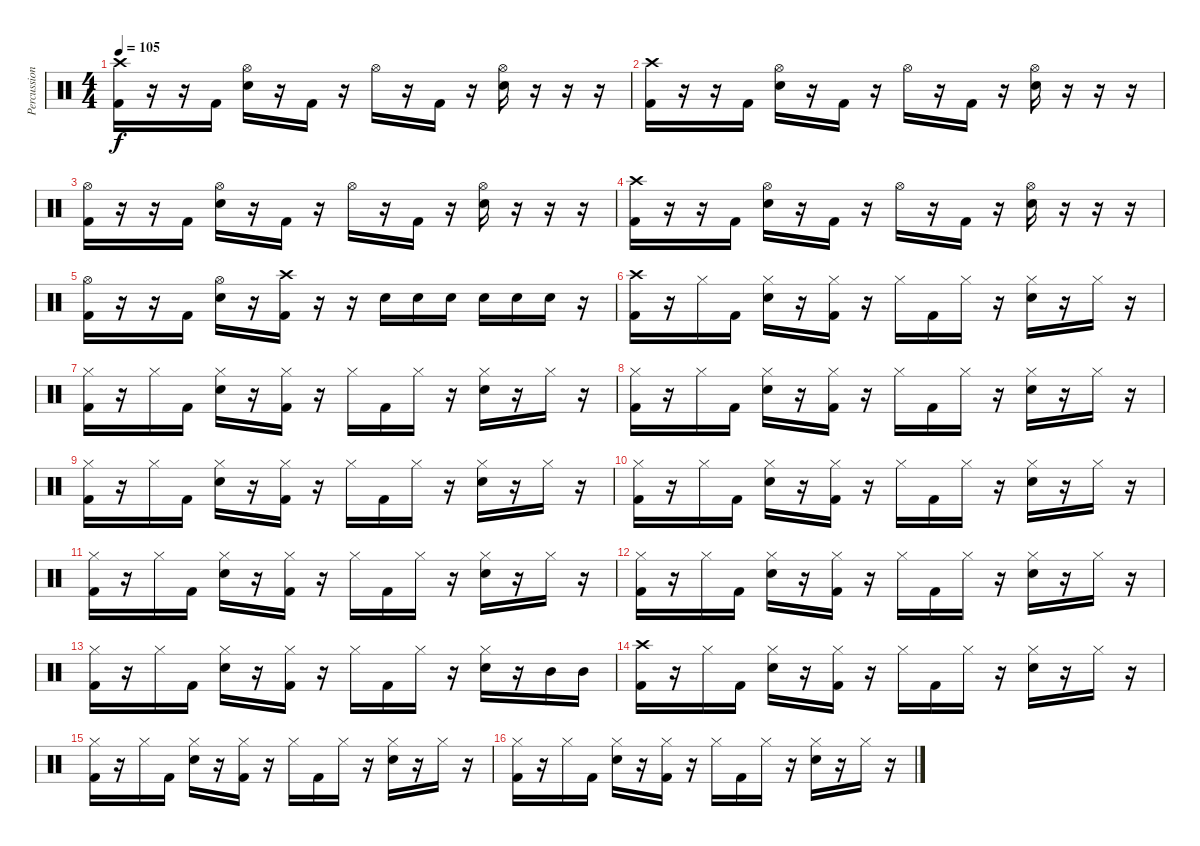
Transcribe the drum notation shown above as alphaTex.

\track ("Percussion" "Percussion") {instrument percussion}
\staff {score}
\articulation defaults
\ts (4 4)
\tempo 105
\clef neutral
\ks c
("Crash high (hit)" "Kick (hit) 2").16{dy f} r.16 r.16 "Kick (hit) 2".16 ("Hi-Hat (open)" "Snare (hit) 2").16 r.16 "Kick (hit) 2".16 r.16 "Hi-Hat (open)".16 r.16 "Kick (hit) 2".16 r.16 ("Hi-Hat (open)" "Snare (hit) 2").16 r.16 r.16 r.16 |
("Crash high (hit)" "Kick (hit) 2").16 r.16 r.16 "Kick (hit) 2".16 ("Hi-Hat (open)" "Snare (hit) 2").16 r.16 "Kick (hit) 2".16 r.16 "Hi-Hat (open)".16 r.16 "Kick (hit) 2".16 r.16 ("Hi-Hat (open)" "Snare (hit) 2").16 r.16 r.16 r.16 |
("Hi-Hat (open)" "Kick (hit) 2").16 r.16 r.16 "Kick (hit) 2".16 ("Hi-Hat (open)" "Snare (hit) 2").16 r.16 "Kick (hit) 2".16 r.16 "Hi-Hat (open)".16 r.16 "Kick (hit) 2".16 r.16 ("Hi-Hat (open)" "Snare (hit) 2").16 r.16 r.16 r.16 |
("Crash high (hit)" "Kick (hit) 2").16 r.16 r.16 "Kick (hit) 2".16 ("Hi-Hat (open)" "Snare (hit) 2").16 r.16 "Kick (hit) 2".16 r.16 "Hi-Hat (open)".16 r.16 "Kick (hit) 2".16 r.16 ("Hi-Hat (open)" "Snare (hit) 2").16 r.16 r.16 r.16 |
("Hi-Hat (open)" "Kick (hit) 2").16 r.16 r.16 "Kick (hit) 2".16 ("Hi-Hat (open)" "Snare (hit) 2").16 r.16 ("Crash high (hit)" "Kick (hit) 2").16 r.16 r.16 "Snare (hit) 2".16 "Snare (hit) 2".16 "Snare (hit) 2".16 "Snare (hit) 2".16 "Snare (hit) 2".16 "Snare (hit) 2".16 r.16 |
("Crash high (hit)" "Kick (hit) 2").16 r.16 "Hi-Hat (closed)".16 "Kick (hit) 2".16 ("Hi-Hat (closed)" "Snare (hit) 2").16 r.16 ("Hi-Hat (closed)" "Kick (hit) 2").16 r.16 "Hi-Hat (closed)".16 "Kick (hit) 2".16 "Hi-Hat (closed)".16 r.16 ("Hi-Hat (closed)" "Snare (hit) 2").16 r.16 "Hi-Hat (closed)".16 r.16 |
("Hi-Hat (closed)" "Kick (hit) 2").16 r.16 "Hi-Hat (closed)".16 "Kick (hit) 2".16 ("Hi-Hat (closed)" "Snare (hit) 2").16 r.16 ("Hi-Hat (closed)" "Kick (hit) 2").16 r.16 "Hi-Hat (closed)".16 "Kick (hit) 2".16 "Hi-Hat (closed)".16 r.16 ("Hi-Hat (closed)" "Snare (hit) 2").16 r.16 "Hi-Hat (closed)".16 r.16 |
("Hi-Hat (closed)" "Kick (hit) 2").16 r.16 "Hi-Hat (closed)".16 "Kick (hit) 2".16 ("Hi-Hat (closed)" "Snare (hit) 2").16 r.16 ("Hi-Hat (closed)" "Kick (hit) 2").16 r.16 "Hi-Hat (closed)".16 "Kick (hit) 2".16 "Hi-Hat (closed)".16 r.16 ("Hi-Hat (closed)" "Snare (hit) 2").16 r.16 "Hi-Hat (closed)".16 r.16 |
("Hi-Hat (closed)" "Kick (hit) 2").16 r.16 "Hi-Hat (closed)".16 "Kick (hit) 2".16 ("Hi-Hat (closed)" "Snare (hit) 2").16 r.16 ("Hi-Hat (closed)" "Kick (hit) 2").16 r.16 "Hi-Hat (closed)".16 "Kick (hit) 2".16 "Hi-Hat (closed)".16 r.16 ("Hi-Hat (closed)" "Snare (hit) 2").16 r.16 "Hi-Hat (closed)".16 r.16 |
("Hi-Hat (closed)" "Kick (hit) 2").16 r.16 "Hi-Hat (closed)".16 "Kick (hit) 2".16 ("Hi-Hat (closed)" "Snare (hit) 2").16 r.16 ("Hi-Hat (closed)" "Kick (hit) 2").16 r.16 "Hi-Hat (closed)".16 "Kick (hit) 2".16 "Hi-Hat (closed)".16 r.16 ("Hi-Hat (closed)" "Snare (hit) 2").16 r.16 "Hi-Hat (closed)".16 r.16 |
("Hi-Hat (closed)" "Kick (hit) 2").16 r.16 "Hi-Hat (closed)".16 "Kick (hit) 2".16 ("Hi-Hat (closed)" "Snare (hit) 2").16 r.16 ("Hi-Hat (closed)" "Kick (hit) 2").16 r.16 "Hi-Hat (closed)".16 "Kick (hit) 2".16 "Hi-Hat (closed)".16 r.16 ("Hi-Hat (closed)" "Snare (hit) 2").16 r.16 "Hi-Hat (closed)".16 r.16 |
("Hi-Hat (closed)" "Kick (hit) 2").16 r.16 "Hi-Hat (closed)".16 "Kick (hit) 2".16 ("Hi-Hat (closed)" "Snare (hit) 2").16 r.16 ("Hi-Hat (closed)" "Kick (hit) 2").16 r.16 "Hi-Hat (closed)".16 "Kick (hit) 2".16 "Hi-Hat (closed)".16 r.16 ("Hi-Hat (closed)" "Snare (hit) 2").16 r.16 "Hi-Hat (closed)".16 r.16 |
("Hi-Hat (closed)" "Kick (hit) 2").16 r.16 "Hi-Hat (closed)".16 "Kick (hit) 2".16 ("Hi-Hat (closed)" "Snare (hit) 2").16 r.16 ("Hi-Hat (closed)" "Kick (hit) 2").16 r.16 "Hi-Hat (closed)".16 "Kick (hit) 2".16 "Hi-Hat (closed)".16 r.16 ("Hi-Hat (closed)" "Snare (hit) 2").16 r.16 "Mid Tom (hit)".16 "Mid Tom (hit)".16 |
("Crash high (hit)" "Kick (hit) 2").16 r.16 "Hi-Hat (closed)".16 "Kick (hit) 2".16 ("Hi-Hat (closed)" "Snare (hit) 2").16 r.16 ("Hi-Hat (closed)" "Kick (hit) 2").16 r.16 "Hi-Hat (closed)".16 "Kick (hit) 2".16 "Hi-Hat (closed)".16 r.16 ("Hi-Hat (closed)" "Snare (hit) 2").16 r.16 "Hi-Hat (closed)".16 r.16 |
("Hi-Hat (closed)" "Kick (hit) 2").16 r.16 "Hi-Hat (closed)".16 "Kick (hit) 2".16 ("Hi-Hat (closed)" "Snare (hit) 2").16 r.16 ("Hi-Hat (closed)" "Kick (hit) 2").16 r.16 "Hi-Hat (closed)".16 "Kick (hit) 2".16 "Hi-Hat (closed)".16 r.16 ("Hi-Hat (closed)" "Snare (hit) 2").16 r.16 "Hi-Hat (closed)".16 r.16 |
("Hi-Hat (closed)" "Kick (hit) 2").16 r.16 "Hi-Hat (closed)".16 "Kick (hit) 2".16 ("Hi-Hat (closed)" "Snare (hit) 2").16 r.16 ("Hi-Hat (closed)" "Kick (hit) 2").16 r.16 "Hi-Hat (closed)".16 "Kick (hit) 2".16 "Hi-Hat (closed)".16 r.16 ("Hi-Hat (closed)" "Snare (hit) 2").16 r.16 "Hi-Hat (closed)".16 r.16
